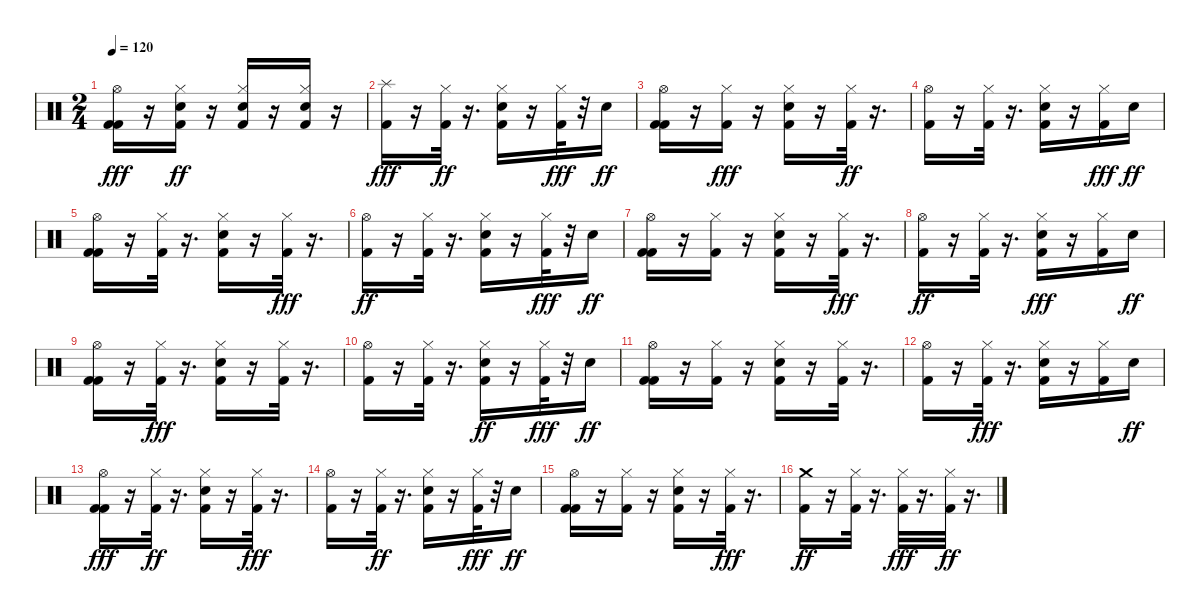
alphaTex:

\track "" {instrument percussion}
\staff {score}
\articulation defaults
\ts (2 4)
\tempo 120
\clef neutral
\ks c
("Kick (hit) 2" "Kick (hit) 2" "Hi-Hat (open)").16{dy fff} r.16 ("Hi-Hat (closed)" "Kick (hit) 2" "Snare (hit) 2").16{dy ff} r.16 ("Snare (hit) 2" "Hi-Hat (closed)" "Kick (hit) 2").16 r.16 ("Kick (hit) 2" "Hi-Hat (closed)" "Snare (hit) 2").16 r.16 |
("Kick (hit) 2" "Splash (hit)").16{dy fff} r.16 ("Hi-Hat (closed)" "Kick (hit) 2").32{dy ff} r.16{d} ("Kick (hit) 2" "Hi-Hat (closed)" "Snare (hit) 2").16 r.16 ("Kick (hit) 2" "Hi-Hat (closed)").32{dy fff} r.32 "Snare (hit) 2".16{dy ff} |
("Hi-Hat (open)" "Kick (hit) 2" "Kick (hit) 2").16 r.16 ("Kick (hit) 2" "Hi-Hat (closed)").16{dy fff} r.16 ("Snare (hit) 2" "Kick (hit) 2" "Hi-Hat (closed)").16 r.16 ("Hi-Hat (closed)" "Kick (hit) 2").32{dy ff} r.16{d} |
("Hi-Hat (open)" "Kick (hit) 2").16 r.16 ("Hi-Hat (closed)" "Kick (hit) 2").32 r.16{d} ("Hi-Hat (closed)" "Snare (hit) 2" "Kick (hit) 2").16 r.16 ("Kick (hit) 2" "Hi-Hat (closed)").16{dy fff} "Snare (hit) 2".16{dy ff} |
("Hi-Hat (open)" "Kick (hit) 2" "Kick (hit) 2").16 r.16 ("Hi-Hat (closed)" "Kick (hit) 2").32 r.16{d} ("Hi-Hat (closed)" "Kick (hit) 2" "Snare (hit) 2").16 r.16 ("Kick (hit) 2" "Hi-Hat (closed)").32{dy fff} r.16{d} |
("Hi-Hat (open)" "Kick (hit) 2").16{dy ff} r.16 ("Hi-Hat (closed)" "Kick (hit) 2").32 r.16{d} ("Snare (hit) 2" "Hi-Hat (closed)" "Kick (hit) 2").16 r.16 ("Kick (hit) 2" "Hi-Hat (closed)").32{dy fff} r.32 "Snare (hit) 2".16{dy ff} |
("Kick (hit) 2" "Hi-Hat (open)" "Kick (hit) 2").16 r.16 ("Hi-Hat (closed)" "Kick (hit) 2").16 r.16 ("Hi-Hat (closed)" "Snare (hit) 2" "Kick (hit) 2").16 r.16 ("Kick (hit) 2" "Hi-Hat (closed)").32{dy fff} r.16{d} |
("Hi-Hat (open)" "Kick (hit) 2").16{dy ff} r.16 ("Hi-Hat (closed)" "Kick (hit) 2").32 r.16{d} ("Kick (hit) 2" "Snare (hit) 2" "Hi-Hat (closed)").16{dy fff} r.16 ("Kick (hit) 2" "Hi-Hat (closed)").16 "Snare (hit) 2".16{dy ff} |
("Hi-Hat (open)" "Kick (hit) 2" "Kick (hit) 2").16 r.16 ("Kick (hit) 2" "Hi-Hat (closed)").32{dy fff} r.16{d} ("Snare (hit) 2" "Kick (hit) 2" "Hi-Hat (closed)").16 r.16 ("Kick (hit) 2" "Hi-Hat (closed)").32 r.16{d} |
("Kick (hit) 2" "Hi-Hat (open)").16 r.16 ("Kick (hit) 2" "Hi-Hat (closed)").32 r.16{d} ("Hi-Hat (closed)" "Snare (hit) 2" "Kick (hit) 2").16{dy ff} r.16 ("Kick (hit) 2" "Hi-Hat (closed)").32{dy fff} r.32 "Snare (hit) 2".16{dy ff} |
("Hi-Hat (open)" "Kick (hit) 2" "Kick (hit) 2").16 r.16 ("Hi-Hat (closed)" "Kick (hit) 2").16 r.16 ("Snare (hit) 2" "Hi-Hat (closed)" "Kick (hit) 2").16 r.16 ("Hi-Hat (closed)" "Kick (hit) 2").32 r.16{d} |
("Hi-Hat (open)" "Kick (hit) 2").16 r.16 ("Kick (hit) 2" "Hi-Hat (closed)").32{dy fff} r.16{d} ("Snare (hit) 2" "Kick (hit) 2" "Hi-Hat (closed)").16 r.16 ("Kick (hit) 2" "Hi-Hat (closed)").16 "Snare (hit) 2".16{dy ff} |
("Kick (hit) 2" "Kick (hit) 2" "Hi-Hat (open)").16{dy fff} r.16 ("Hi-Hat (closed)" "Kick (hit) 2").32{dy ff} r.16{d} ("Hi-Hat (closed)" "Snare (hit) 2" "Kick (hit) 2").16 r.16 ("Kick (hit) 2" "Hi-Hat (closed)").32{dy fff} r.16{d} |
("Kick (hit) 2" "Hi-Hat (open)").16 r.16 ("Hi-Hat (closed)" "Kick (hit) 2").32{dy ff} r.16{d} ("Snare (hit) 2" "Hi-Hat (closed)" "Kick (hit) 2").16 r.16 ("Kick (hit) 2" "Hi-Hat (closed)").32{dy fff} r.32 "Snare (hit) 2".16{dy ff} |
("Kick (hit) 2" "Hi-Hat (open)" "Kick (hit) 2").16 r.16 ("Hi-Hat (closed)" "Kick (hit) 2").16 r.16 ("Snare (hit) 2" "Hi-Hat (closed)" "Kick (hit) 2").16 r.16 ("Kick (hit) 2" "Hi-Hat (closed)").32{dy fff} r.16{d} |
("Crash medium (hit)" "Kick (hit) 2").16{dy ff} r.16 ("Hi-Hat (closed)" "Kick (hit) 2").32 r.16{d} ("Kick (hit) 2" "Hi-Hat (closed)").32{dy fff} r.16{d} ("Hi-Hat (closed)" "Kick (hit) 2").32{dy ff} r.16{d}
